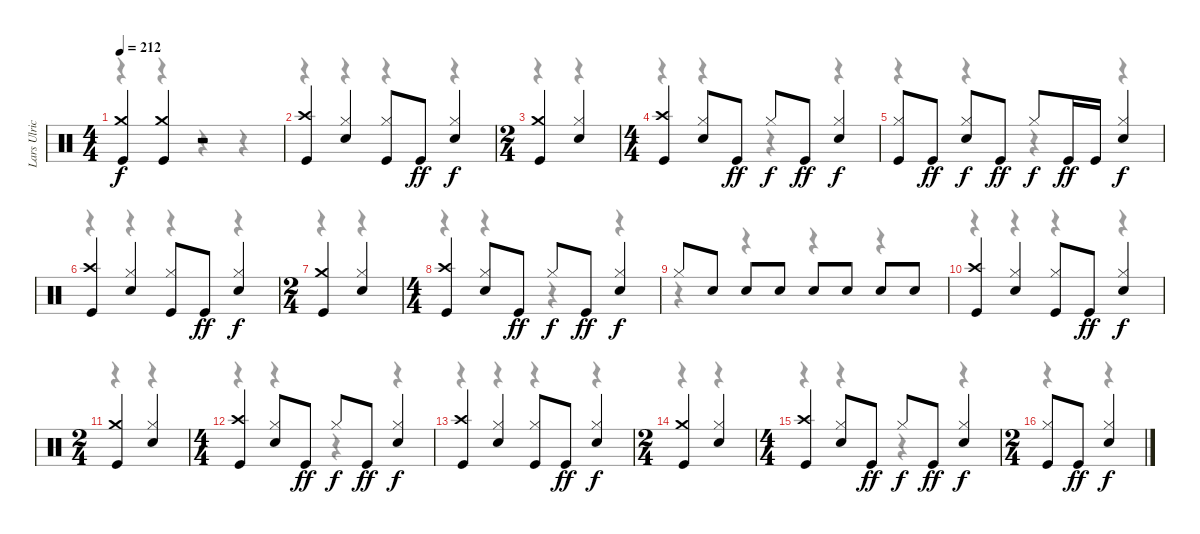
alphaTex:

\track ("Lars Ulrich" "Lars Ulric") {instrument percussion}
\staff {score}
\articulation defaults
\voice
\ts (4 4)
\tempo 212
\clef neutral
\ks c
("Crash medium (hit)" "Kick (hit)").4{dy f} ("Crash medium (hit)" "Kick (hit)").4 r.2 |
("Crash high (hit)" "Kick (hit)").4 ("Hi-Hat (closed)" "Snare (hit) 2").4 ("Hi-Hat (closed)" "Kick (hit)").8 "Kick (hit)".8{dy ff} ("Hi-Hat (closed)" "Snare (hit) 2").4{dy f} |
\ts (2 4)
("Crash medium (hit)" "Kick (hit)").4 ("Hi-Hat (closed)" "Snare (hit) 2").4 |
\ts (4 4)
("Crash high (hit)" "Kick (hit)").4 ("Hi-Hat (closed)" "Snare (hit) 2").8 "Kick (hit)".8{dy ff} "Hi-Hat (closed)".8{dy f} "Kick (hit)".8{dy ff} ("Hi-Hat (closed)" "Snare (hit) 2").4{dy f} |
("Hi-Hat (closed)" "Kick (hit)").8 "Kick (hit)".8{dy ff} ("Hi-Hat (closed)" "Snare (hit) 2").8{dy f} "Kick (hit)".8{dy ff} "Hi-Hat (closed)".8{dy f} "Kick (hit)".16{dy ff} "Kick (hit)".16 ("Hi-Hat (closed)" "Snare (hit) 2").4{dy f} |
("Crash high (hit)" "Kick (hit)").4 ("Hi-Hat (closed)" "Snare (hit) 2").4 ("Hi-Hat (closed)" "Kick (hit)").8 "Kick (hit)".8{dy ff} ("Hi-Hat (closed)" "Snare (hit) 2").4{dy f} |
\ts (2 4)
("Crash medium (hit)" "Kick (hit)").4 ("Hi-Hat (closed)" "Snare (hit) 2").4 |
\ts (4 4)
("Crash high (hit)" "Kick (hit)").4 ("Hi-Hat (closed)" "Snare (hit) 2").8 "Kick (hit)".8{dy ff} "Hi-Hat (closed)".8{dy f} "Kick (hit)".8{dy ff} ("Hi-Hat (closed)" "Snare (hit) 2").4{dy f} |
"Hi-Hat (closed)".8 "Snare (hit) 2".8 "Snare (hit) 2".8 "Snare (hit) 2".8 "Snare (hit) 2".8 "Snare (hit) 2".8 "Snare (hit) 2".8 "Snare (hit) 2".8 |
("Crash high (hit)" "Kick (hit)").4 ("Hi-Hat (closed)" "Snare (hit) 2").4 ("Hi-Hat (closed)" "Kick (hit)").8 "Kick (hit)".8{dy ff} ("Hi-Hat (closed)" "Snare (hit) 2").4{dy f} |
\ts (2 4)
("Crash medium (hit)" "Kick (hit)").4 ("Hi-Hat (closed)" "Snare (hit) 2").4 |
\ts (4 4)
("Crash high (hit)" "Kick (hit)").4 ("Hi-Hat (closed)" "Snare (hit) 2").8 "Kick (hit)".8{dy ff} "Hi-Hat (closed)".8{dy f} "Kick (hit)".8{dy ff} ("Hi-Hat (closed)" "Snare (hit) 2").4{dy f} |
("Crash high (hit)" "Kick (hit)").4 ("Hi-Hat (closed)" "Snare (hit) 2").4 ("Hi-Hat (closed)" "Kick (hit)").8 "Kick (hit)".8{dy ff} ("Hi-Hat (closed)" "Snare (hit) 2").4{dy f} |
\ts (2 4)
("Crash medium (hit)" "Kick (hit)").4 ("Hi-Hat (closed)" "Snare (hit) 2").4 |
\ts (4 4)
("Crash high (hit)" "Kick (hit)").4 ("Hi-Hat (closed)" "Snare (hit) 2").8 "Kick (hit)".8{dy ff} "Hi-Hat (closed)".8{dy f} "Kick (hit)".8{dy ff} ("Hi-Hat (closed)" "Snare (hit) 2").4{dy f} |
\ts (2 4)
("Hi-Hat (closed)" "Kick (hit)").8 "Kick (hit)".8{dy ff} ("Hi-Hat (closed)" "Snare (hit) 2").4{dy f}
\voice
\clef neutral
\ottava regular
\simile none
\ks c
r.4{dy f} r.4 r.4 r.4 |
r.4 r.4 r.4 r.4 |
r.4 r.4 |
r.4 r.4 r.4 r.4 |
r.4 r.4 r.4 r.4 |
r.4 r.4 r.4 r.4 |
r.4 r.4 |
r.4 r.4 r.4 r.4 |
r.4 r.4 r.4 r.4 |
r.4 r.4 r.4 r.4 |
r.4 r.4 |
r.4 r.4 r.4 r.4 |
r.4 r.4 r.4 r.4 |
r.4 r.4 |
r.4 r.4 r.4 r.4 |
r.4 r.4
